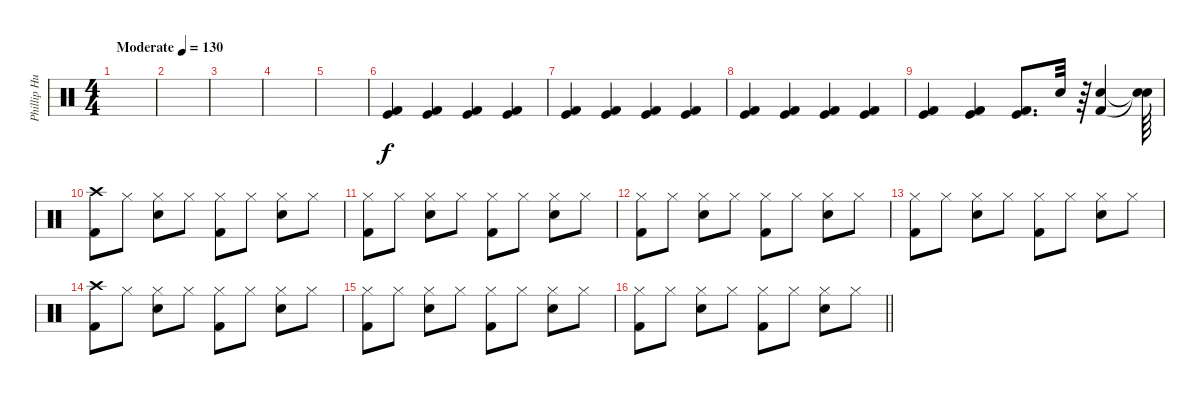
\track ("Phillip Hungh" "Phillip Hu") {instrument percussion}
\staff {score}
\articulation defaults
\ts (4 4)
\tempo (130 "Moderate")
\clef neutral
\ks c
|
|
|
|
|
("Kick (hit)" "Kick (hit) 2").4 ("Kick (hit)" "Kick (hit) 2").4 ("Kick (hit)" "Kick (hit) 2").4 ("Kick (hit)" "Kick (hit) 2").4 |
("Kick (hit)" "Kick (hit) 2").4 ("Kick (hit)" "Kick (hit) 2").4 ("Kick (hit)" "Kick (hit) 2").4 ("Kick (hit)" "Kick (hit) 2").4 |
("Kick (hit)" "Kick (hit) 2").4 ("Kick (hit)" "Kick (hit) 2").4 ("Kick (hit)" "Kick (hit) 2").4 ("Kick (hit)" "Kick (hit) 2").4 |
("Kick (hit)" "Kick (hit) 2").4 ("Kick (hit)" "Kick (hit) 2").4 ("Kick (hit)" "Kick (hit) 2").8{d} "Snare (hit) 2".32 r.64 ("Snare (hit) 2" "Kick (hit) 2").4 ("Snare (hit)"{t} "Snare (hit)"{t}).64 |
("Crash high (hit)" "Kick (hit) 2").8 "Hi-Hat (closed)".8 ("Hi-Hat (closed)" "Snare (hit) 2").8 "Hi-Hat (closed)".8 ("Hi-Hat (closed)" "Kick (hit) 2").8 "Hi-Hat (closed)".8 ("Hi-Hat (closed)" "Snare (hit) 2").8 "Hi-Hat (closed)".8 |
("Hi-Hat (closed)" "Kick (hit) 2").8 "Hi-Hat (closed)".8 ("Hi-Hat (closed)" "Snare (hit) 2").8 "Hi-Hat (closed)".8 ("Hi-Hat (closed)" "Kick (hit) 2").8 "Hi-Hat (closed)".8 ("Hi-Hat (closed)" "Snare (hit) 2").8 "Hi-Hat (closed)".8 |
("Hi-Hat (closed)" "Kick (hit) 2").8 "Hi-Hat (closed)".8 ("Hi-Hat (closed)" "Snare (hit) 2").8 "Hi-Hat (closed)".8 ("Hi-Hat (closed)" "Kick (hit) 2").8 "Hi-Hat (closed)".8 ("Hi-Hat (closed)" "Snare (hit) 2").8 "Hi-Hat (closed)".8 |
("Hi-Hat (closed)" "Kick (hit) 2").8 "Hi-Hat (closed)".8 ("Hi-Hat (closed)" "Snare (hit) 2").8 "Hi-Hat (closed)".8 ("Hi-Hat (closed)" "Kick (hit) 2").8 "Hi-Hat (closed)".8 ("Hi-Hat (closed)" "Snare (hit) 2").8 "Hi-Hat (closed)".8 |
("Crash high (hit)" "Kick (hit) 2").8 "Hi-Hat (closed)".8 ("Hi-Hat (closed)" "Snare (hit) 2").8 "Hi-Hat (closed)".8 ("Hi-Hat (closed)" "Kick (hit) 2").8 "Hi-Hat (closed)".8 ("Hi-Hat (closed)" "Snare (hit) 2").8 "Hi-Hat (closed)".8 |
("Hi-Hat (closed)" "Kick (hit) 2").8 "Hi-Hat (closed)".8 ("Hi-Hat (closed)" "Snare (hit) 2").8 "Hi-Hat (closed)".8 ("Hi-Hat (closed)" "Kick (hit) 2").8 "Hi-Hat (closed)".8 ("Hi-Hat (closed)" "Snare (hit) 2").8 "Hi-Hat (closed)".8 |
\barLineRight lightlight
("Hi-Hat (closed)" "Kick (hit) 2").8 "Hi-Hat (closed)".8 ("Hi-Hat (closed)" "Snare (hit) 2").8 "Hi-Hat (closed)".8 ("Hi-Hat (closed)" "Kick (hit) 2").8 "Hi-Hat (closed)".8 ("Hi-Hat (closed)" "Snare (hit) 2").8 "Hi-Hat (closed)".8
